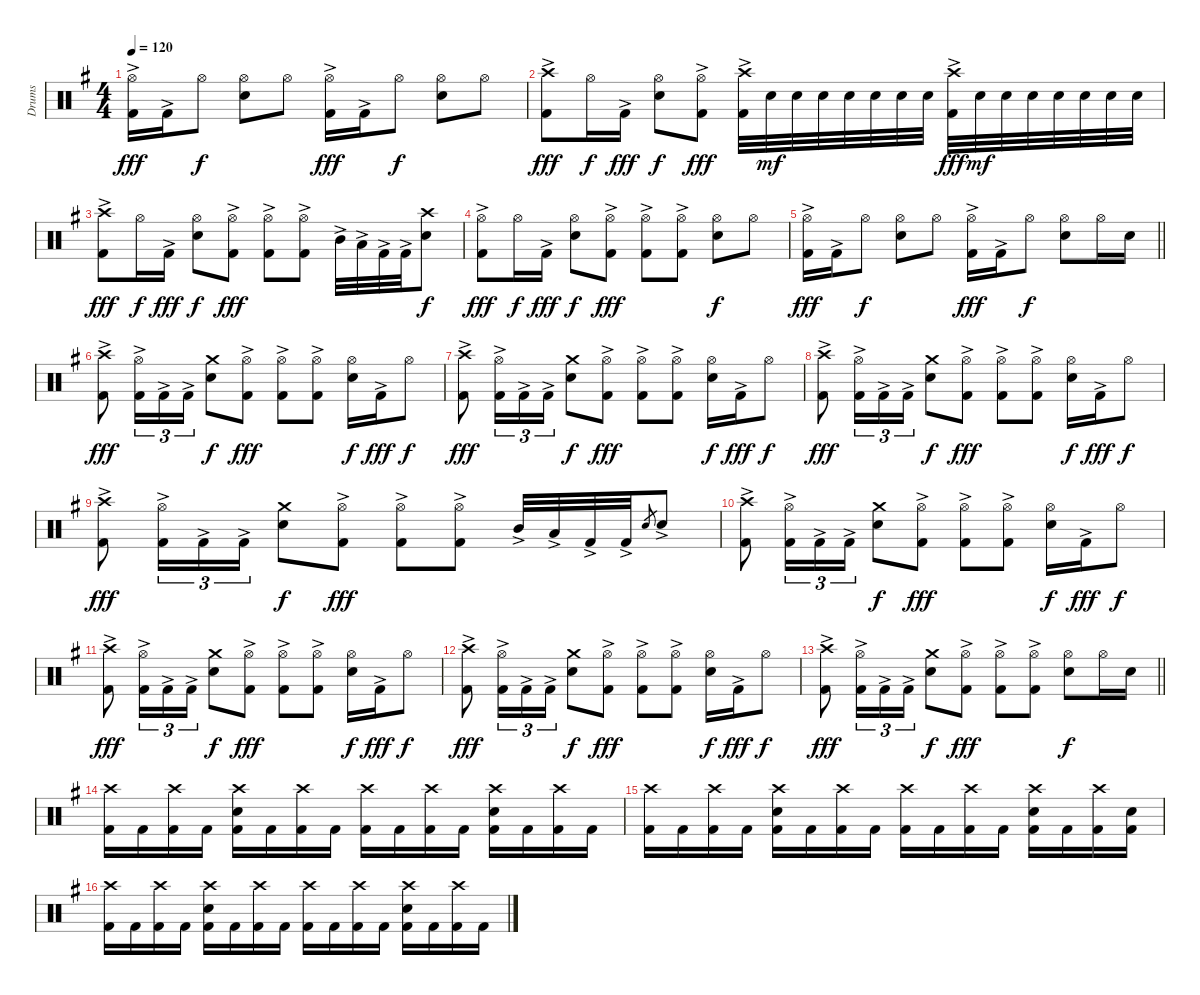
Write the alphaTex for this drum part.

\track ("Drums" "Drums") {instrument percussion}
\staff {score}
\articulation defaults
\ts (4 4)
\tempo 120
\clef neutral
\ks eminor
("Hi-Hat (open)" "Kick (hit) 2"{ac}).16{dy fff} "Kick (hit) 2"{ac}.16 "Hi-Hat (open)".8{dy f} ("Hi-Hat (open)" "Snare (hit) 2").8 "Hi-Hat (open)".8 ("Hi-Hat (open)" "Kick (hit) 2"{ac}).16{dy fff} "Kick (hit) 2"{ac}.16 "Hi-Hat (open)".8{dy f} ("Hi-Hat (open)" "Snare (hit) 2").8 "Hi-Hat (open)".8 |
("Crash high (hit)" "Kick (hit) 2"{ac}).8{dy fff} "Hi-Hat (open)".16{dy f} "Kick (hit) 2"{ac}.16{dy fff} ("Hi-Hat (open)" "Snare (hit) 2").8{dy f} ("Hi-Hat (open)" "Kick (hit) 2"{ac}).8{dy fff} ("Crash high (hit)" "Kick (hit) 2"{ac}).32 "Snare (hit) 2".32{dy mf} "Snare (hit) 2".32 "Snare (hit) 2".32 "Snare (hit) 2".32 "Snare (hit) 2".32 "Snare (hit) 2".32 "Snare (hit) 2".32 ("Crash high (hit)" "Kick (hit) 2"{ac}).32{dy fff} "Snare (hit) 2".32{dy mf} "Snare (hit) 2".32 "Snare (hit) 2".32 "Snare (hit) 2".32 "Snare (hit) 2".32 "Snare (hit) 2".32 "Snare (hit) 2".32 |
("Crash high (hit)" "Kick (hit) 2"{ac}).8{dy fff} "Hi-Hat (open)".16{dy f} "Kick (hit) 2"{ac}.16{dy fff} ("Hi-Hat (open)" "Snare (hit) 2").8{dy f} ("Hi-Hat (open)" "Kick (hit) 2"{ac}).8{dy fff} ("Hi-Hat (open)" "Kick (hit) 2"{ac}).8 ("Hi-Hat (open)" "Kick (hit) 2"{ac}).8 "Mid Tom (hit)"{ac}.32 "Low Tom (hit)"{ac}.32 "Kick (hit) 2"{ac}.32 "Kick (hit) 2"{ac}.32 ("Crash high (hit)" "Snare (hit) 2").8{dy f} |
("Hi-Hat (open)" "Kick (hit) 2"{ac}).8{dy fff} "Hi-Hat (open)".16{dy f} "Kick (hit) 2"{ac}.16{dy fff} ("Hi-Hat (open)" "Snare (hit) 2").8{dy f} ("Hi-Hat (open)" "Kick (hit) 2"{ac}).8{dy fff} ("Hi-Hat (open)" "Kick (hit) 2"{ac}).8 ("Hi-Hat (open)" "Kick (hit) 2"{ac}).8 ("Hi-Hat (open)" "Snare (hit) 2").8{dy f} "Hi-Hat (open)".8 |
\barLineRight lightlight
("Hi-Hat (open)" "Kick (hit) 2"{ac}).16{dy fff} "Kick (hit) 2"{ac}.16 "Hi-Hat (open)".8{dy f} ("Hi-Hat (open)" "Snare (hit) 2").8 "Hi-Hat (open)".8 ("Hi-Hat (open)" "Kick (hit) 2"{ac}).16{dy fff} "Kick (hit) 2"{ac}.16 "Hi-Hat (open)".8{dy f} ("Hi-Hat (open)" "Snare (hit) 2").8 "Hi-Hat (open)".16 "Snare (hit) 2".16 |
("Crash high (hit)" "Kick (hit) 2"{ac}).8{dy fff} ("Hi-Hat (open)" "Kick (hit) 2"{ac}).16{tu (3 2)} "Kick (hit) 2"{ac}.16{tu (3 2)} "Kick (hit) 2"{ac}.16{tu (3 2)} ("Crash medium (hit)" "Snare (hit) 2").8{dy f} ("Hi-Hat (open)" "Kick (hit) 2"{ac}).8{dy fff} ("Hi-Hat (open)" "Kick (hit) 2"{ac}).8 ("Hi-Hat (open)" "Kick (hit) 2"{ac}).8 ("Hi-Hat (open)" "Snare (hit) 2").16{dy f} "Kick (hit) 2"{ac}.16{dy fff} "Hi-Hat (open)".8{dy f} |
("Crash high (hit)" "Kick (hit) 2"{ac}).8{dy fff} ("Hi-Hat (open)" "Kick (hit) 2"{ac}).16{tu (3 2)} "Kick (hit) 2"{ac}.16{tu (3 2)} "Kick (hit) 2"{ac}.16{tu (3 2)} ("Crash medium (hit)" "Snare (hit) 2").8{dy f} ("Hi-Hat (open)" "Kick (hit) 2"{ac}).8{dy fff} ("Hi-Hat (open)" "Kick (hit) 2"{ac}).8 ("Hi-Hat (open)" "Kick (hit) 2"{ac}).8 ("Hi-Hat (open)" "Snare (hit) 2").16{dy f} "Kick (hit) 2"{ac}.16{dy fff} "Hi-Hat (open)".8{dy f} |
("Crash high (hit)" "Kick (hit) 2"{ac}).8{dy fff} ("Hi-Hat (open)" "Kick (hit) 2"{ac}).16{tu (3 2)} "Kick (hit) 2"{ac}.16{tu (3 2)} "Kick (hit) 2"{ac}.16{tu (3 2)} ("Crash medium (hit)" "Snare (hit) 2").8{dy f} ("Hi-Hat (open)" "Kick (hit) 2"{ac}).8{dy fff} ("Hi-Hat (open)" "Kick (hit) 2"{ac}).8 ("Hi-Hat (open)" "Kick (hit) 2"{ac}).8 ("Hi-Hat (open)" "Snare (hit) 2").16{dy f} "Kick (hit) 2"{ac}.16{dy fff} "Hi-Hat (open)".8{dy f} |
("Crash high (hit)" "Kick (hit) 2"{ac}).8{dy fff} ("Hi-Hat (open)" "Kick (hit) 2"{ac}).16{tu (3 2)} "Kick (hit) 2"{ac}.16{tu (3 2)} "Kick (hit) 2"{ac}.16{tu (3 2)} ("Crash medium (hit)" "Snare (hit) 2").8{dy f} ("Hi-Hat (open)" "Kick (hit) 2"{ac}).8{dy fff} ("Hi-Hat (open)" "Kick (hit) 2"{ac}).8 ("Hi-Hat (open)" "Kick (hit) 2"{ac}).8 "Mid Tom (hit)"{ac}.32 "Low Tom (hit)"{ac}.32 "Kick (hit) 2"{ac}.32 "Kick (hit) 2"{ac}.32 "Snare (hit) 2".8{gr} "Snare (hit) 2"{ac}.8 |
("Crash high (hit)" "Kick (hit) 2"{ac}).8 ("Hi-Hat (open)" "Kick (hit) 2"{ac}).16{tu (3 2)} "Kick (hit) 2"{ac}.16{tu (3 2)} "Kick (hit) 2"{ac}.16{tu (3 2)} ("Crash medium (hit)" "Snare (hit) 2").8{dy f} ("Hi-Hat (open)" "Kick (hit) 2"{ac}).8{dy fff} ("Hi-Hat (open)" "Kick (hit) 2"{ac}).8 ("Hi-Hat (open)" "Kick (hit) 2"{ac}).8 ("Hi-Hat (open)" "Snare (hit) 2").16{dy f} "Kick (hit) 2"{ac}.16{dy fff} "Hi-Hat (open)".8{dy f} |
("Crash high (hit)" "Kick (hit) 2"{ac}).8{dy fff} ("Hi-Hat (open)" "Kick (hit) 2"{ac}).16{tu (3 2)} "Kick (hit) 2"{ac}.16{tu (3 2)} "Kick (hit) 2"{ac}.16{tu (3 2)} ("Crash medium (hit)" "Snare (hit) 2").8{dy f} ("Hi-Hat (open)" "Kick (hit) 2"{ac}).8{dy fff} ("Hi-Hat (open)" "Kick (hit) 2"{ac}).8 ("Hi-Hat (open)" "Kick (hit) 2"{ac}).8 ("Hi-Hat (open)" "Snare (hit) 2").16{dy f} "Kick (hit) 2"{ac}.16{dy fff} "Hi-Hat (open)".8{dy f} |
("Crash high (hit)" "Kick (hit) 2"{ac}).8{dy fff} ("Hi-Hat (open)" "Kick (hit) 2"{ac}).16{tu (3 2)} "Kick (hit) 2"{ac}.16{tu (3 2)} "Kick (hit) 2"{ac}.16{tu (3 2)} ("Crash medium (hit)" "Snare (hit) 2").8{dy f} ("Hi-Hat (open)" "Kick (hit) 2"{ac}).8{dy fff} ("Hi-Hat (open)" "Kick (hit) 2"{ac}).8 ("Hi-Hat (open)" "Kick (hit) 2"{ac}).8 ("Hi-Hat (open)" "Snare (hit) 2").16{dy f} "Kick (hit) 2"{ac}.16{dy fff} "Hi-Hat (open)".8{dy f} |
\barLineRight lightlight
("Crash high (hit)" "Kick (hit) 2"{ac}).8{dy fff} ("Hi-Hat (open)" "Kick (hit) 2"{ac}).16{tu (3 2)} "Kick (hit) 2"{ac}.16{tu (3 2)} "Kick (hit) 2"{ac}.16{tu (3 2)} ("Crash medium (hit)" "Snare (hit) 2").8{dy f} ("Hi-Hat (open)" "Kick (hit) 2"{ac}).8{dy fff} ("Hi-Hat (open)" "Kick (hit) 2"{ac}).8 ("Hi-Hat (open)" "Kick (hit) 2"{ac}).8 ("Hi-Hat (open)" "Snare (hit) 2").8{dy f} "Hi-Hat (open)".16 "Snare (hit) 2".16 |
("Crash high (hit)" "Kick (hit) 2").16 "Kick (hit) 2".16 ("Crash high (hit)" "Kick (hit) 2").16 "Kick (hit) 2".16 ("Crash high (hit)" "Snare (hit) 2" "Kick (hit) 2").16 "Kick (hit) 2".16 ("Crash high (hit)" "Kick (hit) 2").16 "Kick (hit) 2".16 ("Crash high (hit)" "Kick (hit) 2").16 "Kick (hit) 2".16 ("Crash high (hit)" "Kick (hit) 2").16 "Kick (hit) 2".16 ("Crash high (hit)" "Snare (hit) 2" "Kick (hit) 2").16 "Kick (hit) 2".16 ("Crash high (hit)" "Kick (hit) 2").16 "Kick (hit) 2".16 |
("Crash high (hit)" "Kick (hit) 2").16 "Kick (hit) 2".16 ("Crash high (hit)" "Kick (hit) 2").16 "Kick (hit) 2".16 ("Crash high (hit)" "Snare (hit) 2" "Kick (hit) 2").16 "Kick (hit) 2".16 ("Crash high (hit)" "Kick (hit) 2").16 "Kick (hit) 2".16 ("Crash high (hit)" "Kick (hit) 2").16 "Kick (hit) 2".16 ("Crash high (hit)" "Kick (hit) 2").16 "Kick (hit) 2".16 ("Crash high (hit)" "Snare (hit) 2" "Kick (hit) 2").16 "Kick (hit) 2".16 ("Crash high (hit)" "Kick (hit) 2").16 ("Snare (hit) 2" "Kick (hit) 2").16 |
("Crash high (hit)" "Kick (hit) 2").16 "Kick (hit) 2".16 ("Crash high (hit)" "Kick (hit) 2").16 "Kick (hit) 2".16 ("Crash high (hit)" "Snare (hit) 2" "Kick (hit) 2").16 "Kick (hit) 2".16 ("Crash high (hit)" "Kick (hit) 2").16 "Kick (hit) 2".16 ("Crash high (hit)" "Kick (hit) 2").16 "Kick (hit) 2".16 ("Crash high (hit)" "Kick (hit) 2").16 "Kick (hit) 2".16 ("Crash high (hit)" "Snare (hit) 2" "Kick (hit) 2").16 "Kick (hit) 2".16 ("Crash high (hit)" "Kick (hit) 2").16 "Kick (hit) 2".16
